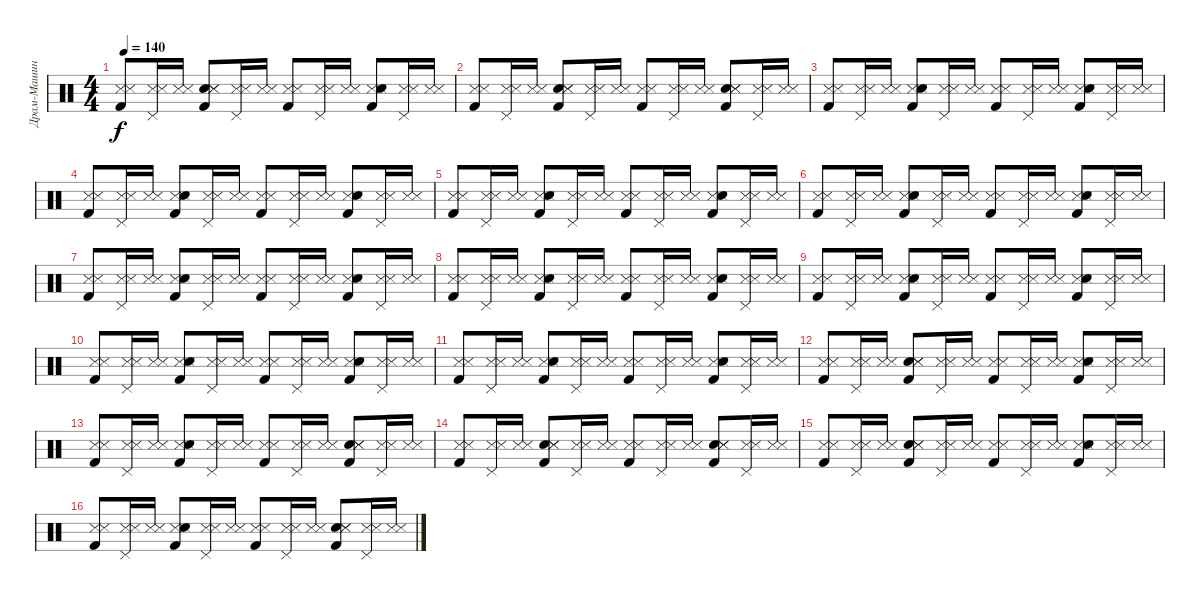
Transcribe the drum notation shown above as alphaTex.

\track ("Драм-Машина" "Драм-Машин") {instrument percussion}
\staff {score}
\articulation defaults
\ts (4 4)
\tempo 140
\clef neutral
\ks c
("Kick (hit) 2" "Snare (side stick) 3" "Metronome (hit)").8{dy f} ("Snare (side stick) 3" "Pedal Hi-Hat (hit)" "Metronome (hit)").16 ("Snare (side stick) 3" "Metronome (hit)").16 ("Snare (hit) 2" "Kick (hit) 2" "Snare (side stick) 3" "Metronome (hit)").8 ("Pedal Hi-Hat (hit)" "Snare (side stick) 3" "Metronome (hit)").16 ("Snare (side stick) 3" "Metronome (hit)").16 ("Snare (side stick) 3" "Kick (hit) 2" "Metronome (hit)").8 ("Pedal Hi-Hat (hit)" "Snare (side stick) 3" "Metronome (hit)").16 ("Snare (side stick) 3" "Metronome (hit)").16 ("Kick (hit) 2" "Snare (side stick) 3" "Snare (hit) 2" "Metronome (hit)").8 ("Pedal Hi-Hat (hit)" "Snare (side stick) 3" "Metronome (hit)").16 ("Snare (side stick) 3" "Metronome (hit)").16 |
("Kick (hit) 2" "Snare (side stick) 3" "Metronome (hit)").8 ("Pedal Hi-Hat (hit)" "Snare (side stick) 3" "Metronome (hit)").16 ("Snare (side stick) 3" "Metronome (hit)").16 ("Kick (hit) 2" "Snare (hit) 2" "Snare (side stick) 3" "Metronome (hit)").8 ("Pedal Hi-Hat (hit)" "Snare (side stick) 3" "Metronome (hit)").16 ("Snare (side stick) 3" "Metronome (hit)").16 ("Kick (hit) 2" "Snare (side stick) 3" "Metronome (hit)").8 ("Pedal Hi-Hat (hit)" "Snare (side stick) 3" "Metronome (hit)").16 ("Snare (side stick) 3" "Metronome (hit)").16 ("Snare (hit) 2" "Snare (side stick) 3" "Kick (hit) 2" "Metronome (hit)").8 ("Snare (side stick) 3" "Pedal Hi-Hat (hit)" "Metronome (hit)").16 ("Snare (side stick) 3" "Metronome (hit)").16 |
("Kick (hit) 2" "Snare (side stick) 3" "Metronome (hit)").8 ("Pedal Hi-Hat (hit)" "Snare (side stick) 3" "Metronome (hit)").16 ("Snare (side stick) 3" "Metronome (hit)").16 ("Snare (side stick) 3" "Kick (hit) 2" "Snare (hit) 2" "Metronome (hit)").8 ("Pedal Hi-Hat (hit)" "Snare (side stick) 3" "Metronome (hit)").16 ("Snare (side stick) 3" "Metronome (hit)").16 ("Snare (side stick) 3" "Kick (hit) 2" "Metronome (hit)").8 ("Pedal Hi-Hat (hit)" "Snare (side stick) 3" "Metronome (hit)").16 ("Snare (side stick) 3" "Metronome (hit)").16 ("Snare (side stick) 3" "Snare (hit) 2" "Kick (hit) 2" "Metronome (hit)").8 ("Pedal Hi-Hat (hit)" "Snare (side stick) 3" "Metronome (hit)").16 ("Snare (side stick) 3" "Metronome (hit)").16 |
("Snare (side stick) 3" "Kick (hit) 2" "Metronome (hit)").8 ("Pedal Hi-Hat (hit)" "Snare (side stick) 3" "Metronome (hit)").16 ("Snare (side stick) 3" "Metronome (hit)").16 ("Snare (side stick) 3" "Metronome (hit)" "Kick (hit) 2" "Snare (hit) 2").8 ("Pedal Hi-Hat (hit)" "Snare (side stick) 3" "Metronome (hit)").16 ("Snare (side stick) 3" "Metronome (hit)").16 ("Snare (side stick) 3" "Metronome (hit)" "Kick (hit) 2").8 ("Pedal Hi-Hat (hit)" "Snare (side stick) 3" "Metronome (hit)").16 ("Snare (side stick) 3" "Metronome (hit)").16 ("Snare (side stick) 3" "Metronome (hit)" "Kick (hit) 2" "Snare (hit) 2").8 ("Pedal Hi-Hat (hit)" "Snare (side stick) 3" "Metronome (hit)").16 ("Snare (side stick) 3" "Metronome (hit)").16 |
("Snare (side stick) 3" "Metronome (hit)" "Kick (hit) 2").8 ("Snare (side stick) 3" "Pedal Hi-Hat (hit)" "Metronome (hit)").16 ("Snare (side stick) 3" "Metronome (hit)").16 ("Snare (side stick) 3" "Metronome (hit)" "Kick (hit) 2" "Snare (hit) 2").8 ("Snare (side stick) 3" "Pedal Hi-Hat (hit)" "Metronome (hit)").16 ("Snare (side stick) 3" "Metronome (hit)").16 ("Snare (side stick) 3" "Metronome (hit)" "Kick (hit) 2").8 ("Snare (side stick) 3" "Pedal Hi-Hat (hit)" "Metronome (hit)").16 ("Snare (side stick) 3" "Metronome (hit)").16 ("Snare (side stick) 3" "Metronome (hit)" "Kick (hit) 2" "Snare (hit) 2").8 ("Pedal Hi-Hat (hit)" "Snare (side stick) 3" "Metronome (hit)").16 ("Snare (side stick) 3" "Metronome (hit)").16 |
("Snare (side stick) 3" "Metronome (hit)" "Kick (hit) 2").8 ("Pedal Hi-Hat (hit)" "Snare (side stick) 3" "Metronome (hit)").16 ("Snare (side stick) 3" "Metronome (hit)").16 ("Snare (side stick) 3" "Metronome (hit)" "Kick (hit) 2" "Snare (hit) 2").8 ("Pedal Hi-Hat (hit)" "Snare (side stick) 3" "Metronome (hit)").16 ("Snare (side stick) 3" "Metronome (hit)").16 ("Snare (side stick) 3" "Metronome (hit)" "Kick (hit) 2").8 ("Pedal Hi-Hat (hit)" "Snare (side stick) 3" "Metronome (hit)").16 ("Snare (side stick) 3" "Metronome (hit)").16 ("Snare (side stick) 3" "Metronome (hit)" "Kick (hit) 2" "Snare (hit) 2").8 ("Pedal Hi-Hat (hit)" "Snare (side stick) 3" "Metronome (hit)").16 ("Snare (side stick) 3" "Metronome (hit)").16 |
("Snare (side stick) 3" "Metronome (hit)" "Kick (hit) 2").8 ("Snare (side stick) 3" "Pedal Hi-Hat (hit)" "Metronome (hit)").16 ("Snare (side stick) 3" "Metronome (hit)").16 ("Snare (side stick) 3" "Metronome (hit)" "Kick (hit) 2" "Snare (hit) 2").8 ("Snare (side stick) 3" "Pedal Hi-Hat (hit)" "Metronome (hit)").16 ("Snare (side stick) 3" "Metronome (hit)").16 ("Snare (side stick) 3" "Metronome (hit)" "Kick (hit) 2").8 ("Pedal Hi-Hat (hit)" "Snare (side stick) 3" "Metronome (hit)").16 ("Snare (side stick) 3" "Metronome (hit)").16 ("Snare (side stick) 3" "Metronome (hit)" "Kick (hit) 2" "Snare (hit) 2").8 ("Pedal Hi-Hat (hit)" "Snare (side stick) 3" "Metronome (hit)").16 ("Snare (side stick) 3" "Metronome (hit)").16 |
("Snare (side stick) 3" "Metronome (hit)" "Kick (hit) 2").8 ("Snare (side stick) 3" "Pedal Hi-Hat (hit)" "Metronome (hit)").16 ("Snare (side stick) 3" "Metronome (hit)").16 ("Snare (side stick) 3" "Metronome (hit)" "Kick (hit) 2" "Snare (hit) 2").8 ("Pedal Hi-Hat (hit)" "Snare (side stick) 3" "Metronome (hit)").16 ("Snare (side stick) 3" "Metronome (hit)").16 ("Snare (side stick) 3" "Metronome (hit)" "Kick (hit) 2").8 ("Pedal Hi-Hat (hit)" "Snare (side stick) 3" "Metronome (hit)").16 ("Snare (side stick) 3" "Metronome (hit)").16 ("Snare (side stick) 3" "Metronome (hit)" "Kick (hit) 2" "Snare (hit) 2").8 ("Snare (side stick) 3" "Pedal Hi-Hat (hit)" "Metronome (hit)").16 ("Snare (side stick) 3" "Metronome (hit)").16 |
("Snare (side stick) 3" "Metronome (hit)" "Kick (hit) 2").8 ("Pedal Hi-Hat (hit)" "Snare (side stick) 3" "Metronome (hit)").16 ("Snare (side stick) 3" "Metronome (hit)").16 ("Snare (side stick) 3" "Metronome (hit)" "Kick (hit) 2" "Snare (hit) 2").8 ("Pedal Hi-Hat (hit)" "Snare (side stick) 3" "Metronome (hit)").16 ("Snare (side stick) 3" "Metronome (hit)").16 ("Snare (side stick) 3" "Metronome (hit)" "Kick (hit) 2").8 ("Pedal Hi-Hat (hit)" "Snare (side stick) 3" "Metronome (hit)").16 ("Snare (side stick) 3" "Metronome (hit)").16 ("Snare (side stick) 3" "Metronome (hit)" "Kick (hit) 2" "Snare (hit) 2").8 ("Snare (side stick) 3" "Pedal Hi-Hat (hit)" "Metronome (hit)").16 ("Snare (side stick) 3" "Metronome (hit)").16 |
("Snare (side stick) 3" "Metronome (hit)" "Kick (hit) 2").8 ("Snare (side stick) 3" "Pedal Hi-Hat (hit)" "Metronome (hit)").16 ("Snare (side stick) 3" "Metronome (hit)").16 ("Snare (side stick) 3" "Metronome (hit)" "Kick (hit) 2" "Snare (hit) 2").8 ("Pedal Hi-Hat (hit)" "Snare (side stick) 3" "Metronome (hit)").16 ("Snare (side stick) 3" "Metronome (hit)").16 ("Snare (side stick) 3" "Metronome (hit)" "Kick (hit) 2").8 ("Pedal Hi-Hat (hit)" "Snare (side stick) 3" "Metronome (hit)").16 ("Snare (side stick) 3" "Metronome (hit)").16 ("Snare (side stick) 3" "Metronome (hit)" "Kick (hit) 2" "Snare (hit) 2").8 ("Pedal Hi-Hat (hit)" "Snare (side stick) 3" "Metronome (hit)").16 ("Snare (side stick) 3" "Metronome (hit)").16 |
("Snare (side stick) 3" "Metronome (hit)" "Kick (hit) 2").8 ("Pedal Hi-Hat (hit)" "Snare (side stick) 3" "Metronome (hit)").16 ("Snare (side stick) 3" "Metronome (hit)").16 ("Snare (side stick) 3" "Metronome (hit)" "Kick (hit) 2" "Snare (hit) 2").8 ("Snare (side stick) 3" "Pedal Hi-Hat (hit)" "Metronome (hit)").16 ("Snare (side stick) 3" "Metronome (hit)").16 ("Snare (side stick) 3" "Metronome (hit)" "Kick (hit) 2").8 ("Snare (side stick) 3" "Pedal Hi-Hat (hit)" "Metronome (hit)").16 ("Snare (side stick) 3" "Metronome (hit)").16 ("Snare (side stick) 3" "Metronome (hit)" "Kick (hit) 2" "Snare (hit) 2").8 ("Snare (side stick) 3" "Pedal Hi-Hat (hit)" "Metronome (hit)").16 ("Snare (side stick) 3" "Metronome (hit)").16 |
("Snare (side stick) 3" "Metronome (hit)" "Kick (hit) 2").8 ("Pedal Hi-Hat (hit)" "Snare (side stick) 3" "Metronome (hit)").16 ("Snare (side stick) 3" "Metronome (hit)").16 ("Snare (hit) 2" "Kick (hit) 2" "Snare (side stick) 3" "Metronome (hit)").8 ("Pedal Hi-Hat (hit)" "Snare (side stick) 3" "Metronome (hit)").16 ("Snare (side stick) 3" "Metronome (hit)").16 ("Snare (side stick) 3" "Metronome (hit)" "Kick (hit) 2").8 ("Pedal Hi-Hat (hit)" "Snare (side stick) 3" "Metronome (hit)").16 ("Snare (side stick) 3" "Metronome (hit)").16 ("Snare (side stick) 3" "Metronome (hit)" "Kick (hit) 2" "Snare (hit) 2").8 ("Snare (side stick) 3" "Pedal Hi-Hat (hit)" "Metronome (hit)").16 ("Snare (side stick) 3" "Metronome (hit)").16 |
("Snare (side stick) 3" "Metronome (hit)" "Kick (hit) 2").8 ("Snare (side stick) 3" "Pedal Hi-Hat (hit)" "Metronome (hit)").16 ("Snare (side stick) 3" "Metronome (hit)").16 ("Snare (side stick) 3" "Metronome (hit)" "Kick (hit) 2" "Snare (hit) 2").8 ("Pedal Hi-Hat (hit)" "Snare (side stick) 3" "Metronome (hit)").16 ("Snare (side stick) 3" "Metronome (hit)").16 ("Snare (side stick) 3" "Metronome (hit)" "Kick (hit) 2").8 ("Pedal Hi-Hat (hit)" "Snare (side stick) 3" "Metronome (hit)").16 ("Snare (side stick) 3" "Metronome (hit)").16 ("Snare (hit) 2" "Snare (side stick) 3" "Metronome (hit)" "Kick (hit) 2").8 ("Snare (side stick) 3" "Pedal Hi-Hat (hit)" "Metronome (hit)").16 ("Snare (side stick) 3" "Metronome (hit)").16 |
("Snare (side stick) 3" "Metronome (hit)" "Kick (hit) 2").8 ("Snare (side stick) 3" "Pedal Hi-Hat (hit)" "Metronome (hit)").16 ("Snare (side stick) 3" "Metronome (hit)").16 ("Snare (hit) 2" "Snare (side stick) 3" "Metronome (hit)" "Kick (hit) 2").8 ("Pedal Hi-Hat (hit)" "Snare (side stick) 3" "Metronome (hit)").16 ("Snare (side stick) 3" "Metronome (hit)").16 ("Snare (side stick) 3" "Metronome (hit)" "Kick (hit) 2").8 ("Pedal Hi-Hat (hit)" "Snare (side stick) 3" "Metronome (hit)").16 ("Snare (side stick) 3" "Metronome (hit)").16 ("Snare (hit) 2" "Snare (side stick) 3" "Metronome (hit)" "Kick (hit) 2").8 ("Pedal Hi-Hat (hit)" "Snare (side stick) 3" "Metronome (hit)").16 ("Snare (side stick) 3" "Metronome (hit)").16 |
("Snare (side stick) 3" "Metronome (hit)" "Kick (hit) 2").8 ("Pedal Hi-Hat (hit)" "Snare (side stick) 3" "Metronome (hit)").16 ("Snare (side stick) 3" "Metronome (hit)").16 ("Snare (hit) 2" "Snare (side stick) 3" "Metronome (hit)" "Kick (hit) 2").8 ("Snare (side stick) 3" "Pedal Hi-Hat (hit)" "Metronome (hit)").16 ("Snare (side stick) 3" "Metronome (hit)").16 ("Snare (side stick) 3" "Metronome (hit)" "Kick (hit) 2").8 ("Snare (side stick) 3" "Pedal Hi-Hat (hit)" "Metronome (hit)").16 ("Snare (side stick) 3" "Metronome (hit)").16 ("Snare (side stick) 3" "Snare (hit) 2" "Metronome (hit)" "Kick (hit) 2").8 ("Pedal Hi-Hat (hit)" "Snare (side stick) 3" "Metronome (hit)").16 ("Snare (side stick) 3" "Metronome (hit)").16 |
("Snare (side stick) 3" "Metronome (hit)" "Kick (hit) 2").8 ("Pedal Hi-Hat (hit)" "Snare (side stick) 3" "Metronome (hit)").16 ("Snare (side stick) 3" "Metronome (hit)").16 ("Snare (side stick) 3" "Snare (hit) 2" "Metronome (hit)" "Kick (hit) 2").8 ("Snare (side stick) 3" "Pedal Hi-Hat (hit)" "Metronome (hit)").16 ("Snare (side stick) 3" "Metronome (hit)").16 ("Snare (side stick) 3" "Metronome (hit)" "Kick (hit) 2").8 ("Snare (side stick) 3" "Pedal Hi-Hat (hit)" "Metronome (hit)").16 ("Snare (side stick) 3" "Metronome (hit)").16 ("Snare (hit) 2" "Snare (side stick) 3" "Metronome (hit)" "Kick (hit) 2").8 ("Pedal Hi-Hat (hit)" "Snare (side stick) 3" "Metronome (hit)").16 ("Snare (side stick) 3" "Metronome (hit)").16
